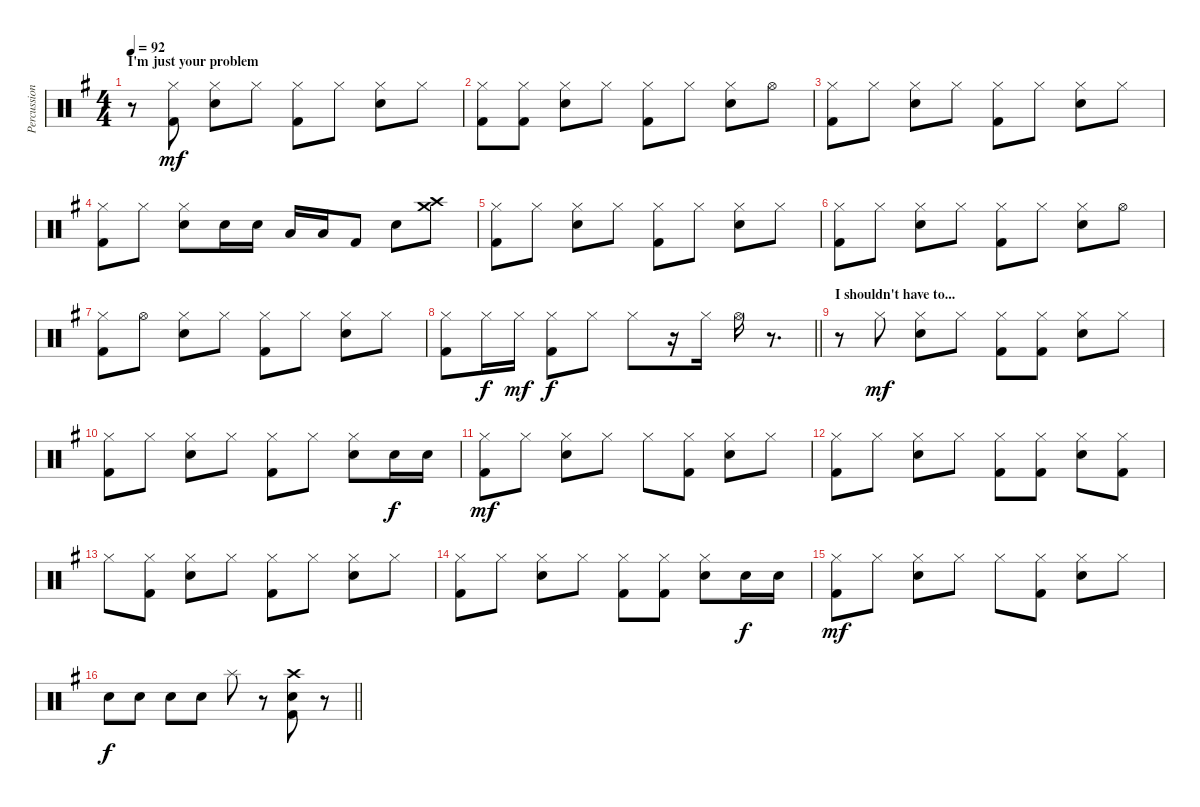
\track ("Percussion" "Percussion") {instrument percussion}
\staff {score}
\articulation defaults
\ts (4 4)
\section ("" "I'm just your problem")
\tempo 92
\clef neutral
\ks eminor
r.8{dy mf} ("Hi-Hat (closed)" "Kick (hit) 2").8 ("Hi-Hat (closed)" "Electric Snare (hit)").8 "Hi-Hat (closed)".8 ("Hi-Hat (closed)" "Kick (hit) 2").8 "Hi-Hat (closed)".8 ("Hi-Hat (closed)" "Electric Snare (hit)").8 "Hi-Hat (closed)".8 |
("Hi-Hat (closed)" "Kick (hit) 2").8 ("Hi-Hat (closed)" "Kick (hit) 2").8 ("Hi-Hat (closed)" "Electric Snare (hit)").8 "Hi-Hat (closed)".8 ("Hi-Hat (closed)" "Kick (hit) 2").8 "Hi-Hat (closed)".8 ("Hi-Hat (closed)" "Electric Snare (hit)").8 "Hi-Hat (open)".8 |
("Hi-Hat (closed)" "Kick (hit) 2").8 "Hi-Hat (closed)".8 ("Hi-Hat (closed)" "Electric Snare (hit)").8 "Hi-Hat (closed)".8 ("Hi-Hat (closed)" "Kick (hit) 2").8 "Hi-Hat (closed)".8 ("Hi-Hat (closed)" "Electric Snare (hit)").8 "Hi-Hat (closed)".8 |
("Hi-Hat (closed)" "Kick (hit) 2").8 "Hi-Hat (closed)".8 ("Hi-Hat (closed)" "Electric Snare (hit)").8 "Electric Snare (hit)".16 "Electric Snare (hit)".16 "Low Tom (hit)".16 "Low Tom (hit)".16 "Kick (hit) 2".8 "Electric Snare (hit)".8 ("Crash high (hit)" "Crash medium (hit)").8 |
("Hi-Hat (closed)" "Kick (hit) 2").8 "Hi-Hat (closed)".8 ("Hi-Hat (closed)" "Electric Snare (hit)").8 "Hi-Hat (closed)".8 ("Hi-Hat (closed)" "Kick (hit) 2").8 "Hi-Hat (closed)".8 ("Hi-Hat (closed)" "Electric Snare (hit)").8 "Hi-Hat (closed)".8 |
("Hi-Hat (closed)" "Kick (hit) 2").8 "Hi-Hat (closed)".8 ("Hi-Hat (closed)" "Electric Snare (hit)").8 "Hi-Hat (closed)".8 ("Hi-Hat (closed)" "Kick (hit) 2").8 "Hi-Hat (closed)".8 ("Hi-Hat (closed)" "Electric Snare (hit)").8 "Hi-Hat (open)".8 |
("Hi-Hat (closed)" "Kick (hit) 2").8 "Hi-Hat (open)".8 ("Hi-Hat (closed)" "Electric Snare (hit)").8 "Hi-Hat (closed)".8 ("Hi-Hat (closed)" "Kick (hit) 2").8 "Hi-Hat (closed)".8 ("Hi-Hat (closed)" "Electric Snare (hit)").8 "Hi-Hat (closed)".8 |
\barLineRight lightlight
("Hi-Hat (closed)" "Kick (hit) 2").8 "Hi-Hat (closed)".16{dy f} "Hi-Hat (closed)".16{dy mf} ("Hi-Hat (closed)" "Kick (hit) 2").8{dy f} "Hi-Hat (closed)".8 "Hi-Hat (closed)".8 r.16 "Hi-Hat (closed)".16 "Hi-Hat (open)".16 r.8{d} |
\section ("" "I shouldn't have to...")
r.8 "Hi-Hat (closed)".8{dy mf} ("Hi-Hat (closed)" "Electric Snare (hit)").8 "Hi-Hat (closed)".8 ("Hi-Hat (closed)" "Kick (hit) 2").8 ("Hi-Hat (closed)" "Kick (hit) 2").8 ("Hi-Hat (closed)" "Electric Snare (hit)").8 "Hi-Hat (closed)".8 |
("Hi-Hat (closed)" "Kick (hit) 2").8 "Hi-Hat (closed)".8 ("Hi-Hat (closed)" "Electric Snare (hit)").8 "Hi-Hat (closed)".8 ("Hi-Hat (closed)" "Kick (hit) 2").8 "Hi-Hat (closed)".8 ("Hi-Hat (closed)" "Electric Snare (hit)").8 "Electric Snare (hit)".16{dy f} "Electric Snare (hit)".16 |
("Hi-Hat (closed)" "Kick (hit) 2").8{dy mf} "Hi-Hat (closed)".8 ("Hi-Hat (closed)" "Electric Snare (hit)").8 "Hi-Hat (closed)".8 "Hi-Hat (closed)".8 ("Hi-Hat (closed)" "Kick (hit) 2").8 ("Hi-Hat (closed)" "Electric Snare (hit)").8 "Hi-Hat (closed)".8 |
("Hi-Hat (closed)" "Kick (hit) 2").8 "Hi-Hat (closed)".8 ("Hi-Hat (closed)" "Electric Snare (hit)").8 "Hi-Hat (closed)".8 ("Hi-Hat (closed)" "Kick (hit) 2").8 ("Hi-Hat (closed)" "Kick (hit) 2").8 ("Hi-Hat (closed)" "Electric Snare (hit)").8 ("Hi-Hat (closed)" "Kick (hit) 2").8 |
"Hi-Hat (closed)".8 ("Hi-Hat (closed)" "Kick (hit) 2").8 ("Hi-Hat (closed)" "Electric Snare (hit)").8 "Hi-Hat (closed)".8 ("Hi-Hat (closed)" "Kick (hit) 2").8 "Hi-Hat (closed)".8 ("Hi-Hat (closed)" "Electric Snare (hit)").8 "Hi-Hat (closed)".8 |
("Hi-Hat (closed)" "Kick (hit) 2").8 "Hi-Hat (closed)".8 ("Hi-Hat (closed)" "Electric Snare (hit)").8 "Hi-Hat (closed)".8 ("Hi-Hat (closed)" "Kick (hit) 2").8 ("Hi-Hat (closed)" "Kick (hit) 2").8 ("Hi-Hat (closed)" "Electric Snare (hit)").8 "Electric Snare (hit)".16{dy f} "Electric Snare (hit)".16 |
("Hi-Hat (closed)" "Kick (hit) 2").8{dy mf} "Hi-Hat (closed)".8 ("Hi-Hat (closed)" "Electric Snare (hit)").8 "Hi-Hat (closed)".8 "Hi-Hat (closed)".8 ("Hi-Hat (closed)" "Kick (hit) 2").8 ("Hi-Hat (closed)" "Electric Snare (hit)").8 "Hi-Hat (closed)".8 |
\barLineRight lightlight "Electric Snare (hit)".8{dy f} "Electric Snare (hit)".8 "Electric Snare (hit)".8 "Electric Snare (hit)".8 "Splash (hit)".8
r.8 ("Crash high (hit)" "Electric Snare (hit)" "Kick (hit) 2").8 r.8
